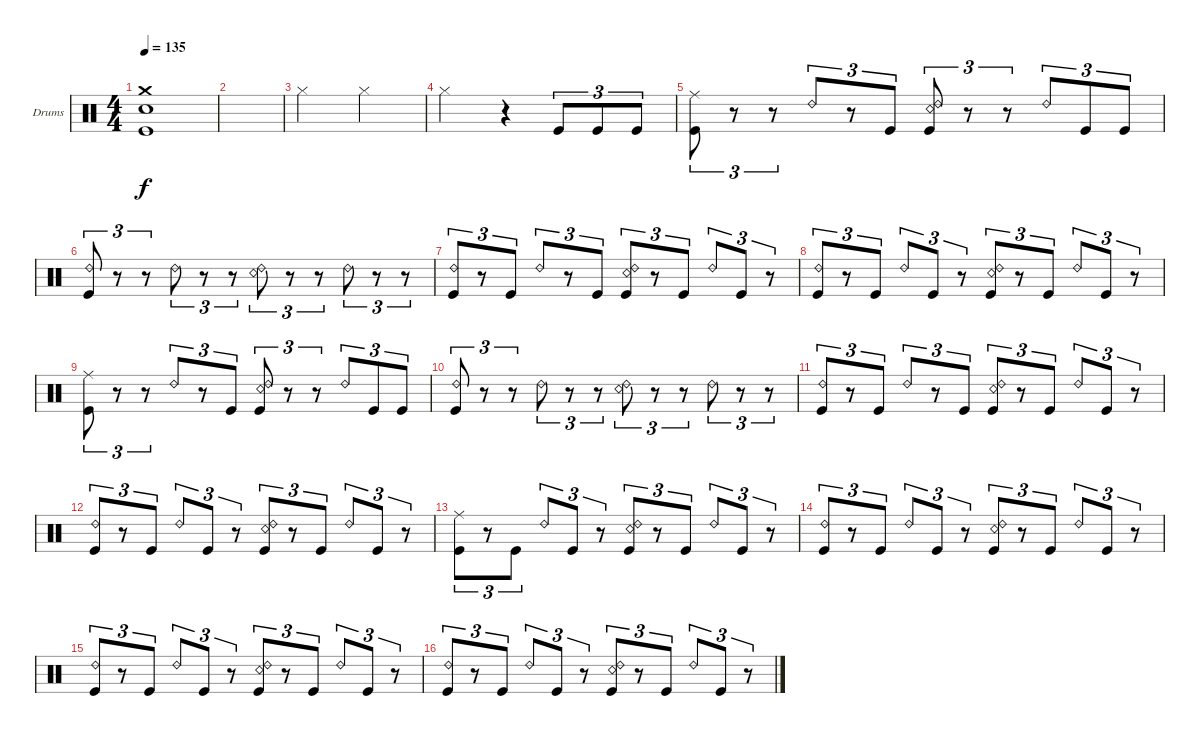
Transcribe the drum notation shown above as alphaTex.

\defaultSystemsLayout 4
\bracketExtendMode groupsimilarinstruments
\firstSystemTrackNameOrientation horizontal
\otherSystemsTrackNameOrientation horizontal
\track ("Drumkit" "Drums") {instrument percussion}
\staff {score}
\articulation defaults
\ts (4 4)
\tempo 135
\clef neutral
\ks c
("Crash medium (hit)" "Snare (hit) 2" "Kick (hit)").1{dy f} |
|
"Hi-Hat (closed)".2 "Hi-Hat (closed)".2 |
"Hi-Hat (closed)".2 r.4 "Kick (hit)".8{tu (3 2)} "Kick (hit)".8{tu (3 2)} "Kick (hit)".8{tu (3 2)} |
("Kick (hit)" "Ride (middle)").8{tu (3 2)} r.8{tu (3 2)} r.8{tu (3 2)} "Ride (bell) 2".8{tu (3 2)} r.8{tu (3 2)} "Kick (hit)".8{tu (3 2)} ("Kick (hit)" "Ride (bell) 2" "Snare (rim shot)").8{tu (3 2)} r.8{tu (3 2)} r.8{tu (3 2)} "Ride (bell) 2".8{tu (3 2)} "Kick (hit)".8{tu (3 2)} "Kick (hit)".8{tu (3 2)} |
("Kick (hit)" "Ride (bell) 2").8{tu (3 2)} r.8{tu (3 2)} r.8{tu (3 2)} "Ride (bell) 2".8{tu (3 2)} r.8{tu (3 2)} r.8{tu (3 2)} ("Ride (bell) 2" "Snare (rim shot)").8{tu (3 2)} r.8{tu (3 2)} r.8{tu (3 2)} "Ride (bell) 2".8{tu (3 2)} r.8{tu (3 2)} r.8{tu (3 2)} |
("Kick (hit)" "Ride (bell) 2").8{tu (3 2)} r.8{tu (3 2)} "Kick (hit)".8{tu (3 2)} "Ride (bell) 2".8{tu (3 2)} r.8{tu (3 2)} "Kick (hit)".8{tu (3 2)} ("Kick (hit)" "Ride (bell) 2" "Snare (rim shot)").8{tu (3 2)} r.8{tu (3 2)} "Kick (hit)".8{tu (3 2)} "Ride (bell) 2".8{tu (3 2)} "Kick (hit)".8{tu (3 2)} r.8{tu (3 2)} |
("Kick (hit)" "Ride (bell) 2").8{tu (3 2)} r.8{tu (3 2)} "Kick (hit)".8{tu (3 2)} "Ride (bell) 2".8{tu (3 2)} "Kick (hit)".8{tu (3 2)} r.8{tu (3 2)} ("Kick (hit)" "Ride (bell) 2" "Snare (rim shot)").8{tu (3 2)} r.8{tu (3 2)} "Kick (hit)".8{tu (3 2)} "Ride (bell) 2".8{tu (3 2)} "Kick (hit)".8{tu (3 2)} r.8{tu (3 2)} |
("Kick (hit)" "Ride (middle)").8{tu (3 2)} r.8{tu (3 2)} r.8{tu (3 2)} "Ride (bell) 2".8{tu (3 2)} r.8{tu (3 2)} "Kick (hit)".8{tu (3 2)} ("Kick (hit)" "Ride (bell) 2" "Snare (rim shot)").8{tu (3 2)} r.8{tu (3 2)} r.8{tu (3 2)} "Ride (bell) 2".8{tu (3 2)} "Kick (hit)".8{tu (3 2)} "Kick (hit)".8{tu (3 2)} |
("Kick (hit)" "Ride (bell) 2").8{tu (3 2)} r.8{tu (3 2)} r.8{tu (3 2)} "Ride (bell) 2".8{tu (3 2)} r.8{tu (3 2)} r.8{tu (3 2)} ("Ride (bell) 2" "Snare (rim shot)").8{tu (3 2)} r.8{tu (3 2)} r.8{tu (3 2)} "Ride (bell) 2".8{tu (3 2)} r.8{tu (3 2)} r.8{tu (3 2)} |
("Kick (hit)" "Ride (bell) 2").8{tu (3 2)} r.8{tu (3 2)} "Kick (hit)".8{tu (3 2)} "Ride (bell) 2".8{tu (3 2)} r.8{tu (3 2)} "Kick (hit)".8{tu (3 2)} ("Kick (hit)" "Ride (bell) 2" "Snare (rim shot)").8{tu (3 2)} r.8{tu (3 2)} "Kick (hit)".8{tu (3 2)} "Ride (bell) 2".8{tu (3 2)} "Kick (hit)".8{tu (3 2)} r.8{tu (3 2)} |
("Kick (hit)" "Ride (bell) 2").8{tu (3 2)} r.8{tu (3 2)} "Kick (hit)".8{tu (3 2)} "Ride (bell) 2".8{tu (3 2)} "Kick (hit)".8{tu (3 2)} r.8{tu (3 2)} ("Kick (hit)" "Ride (bell) 2" "Snare (rim shot)").8{tu (3 2)} r.8{tu (3 2)} "Kick (hit)".8{tu (3 2)} "Ride (bell) 2".8{tu (3 2)} "Kick (hit)".8{tu (3 2)} r.8{tu (3 2)} |
("Kick (hit)" "Ride (middle)").8{tu (3 2)} r.8{tu (3 2)} "Kick (hit)".8{tu (3 2)} "Ride (bell) 2".8{tu (3 2)} "Kick (hit)".8{tu (3 2)} r.8{tu (3 2)} ("Kick (hit)" "Ride (bell) 2" "Snare (rim shot)").8{tu (3 2)} r.8{tu (3 2)} "Kick (hit)".8{tu (3 2)} "Ride (bell) 2".8{tu (3 2)} "Kick (hit)".8{tu (3 2)} r.8{tu (3 2)} |
("Kick (hit)" "Ride (bell) 2").8{tu (3 2)} r.8{tu (3 2)} "Kick (hit)".8{tu (3 2)} "Ride (bell) 2".8{tu (3 2)} "Kick (hit)".8{tu (3 2)} r.8{tu (3 2)} ("Ride (bell) 2" "Snare (rim shot)" "Kick (hit)").8{tu (3 2)} r.8{tu (3 2)} "Kick (hit)".8{tu (3 2)} "Ride (bell) 2".8{tu (3 2)} "Kick (hit)".8{tu (3 2)} r.8{tu (3 2)} |
("Kick (hit)" "Ride (bell) 2").8{tu (3 2)} r.8{tu (3 2)} "Kick (hit)".8{tu (3 2)} "Ride (bell) 2".8{tu (3 2)} "Kick (hit)".8{tu (3 2)} r.8{tu (3 2)} ("Kick (hit)" "Ride (bell) 2" "Snare (rim shot)").8{tu (3 2)} r.8{tu (3 2)} "Kick (hit)".8{tu (3 2)} "Ride (bell) 2".8{tu (3 2)} "Kick (hit)".8{tu (3 2)} r.8{tu (3 2)} |
("Kick (hit)" "Ride (bell) 2").8{tu (3 2)} r.8{tu (3 2)} "Kick (hit)".8{tu (3 2)} "Ride (bell) 2".8{tu (3 2)} "Kick (hit)".8{tu (3 2)} r.8{tu (3 2)} ("Kick (hit)" "Ride (bell) 2" "Snare (rim shot)").8{tu (3 2)} r.8{tu (3 2)} "Kick (hit)".8{tu (3 2)} "Ride (bell) 2".8{tu (3 2)} "Kick (hit)".8{tu (3 2)} r.8{tu (3 2)}
